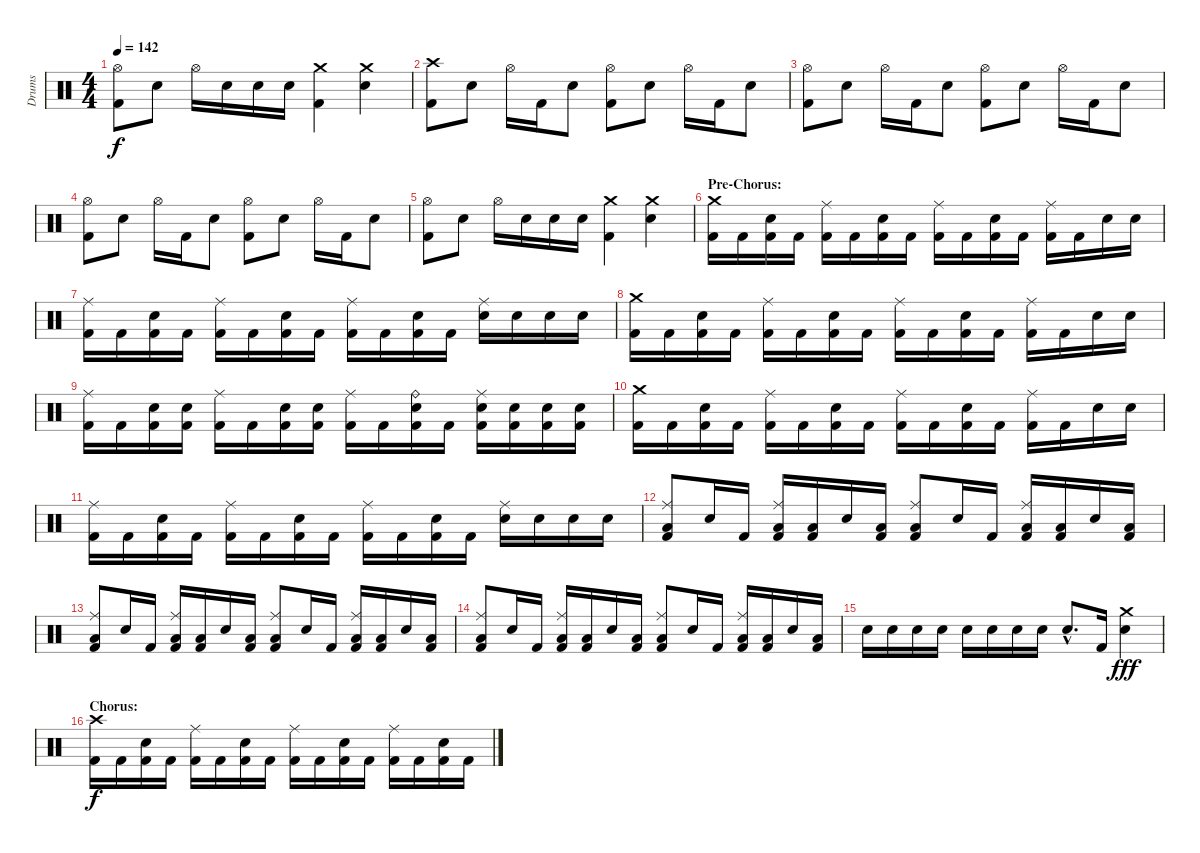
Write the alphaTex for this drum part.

\track ("Drums" "Drums") {instrument percussion}
\staff {score}
\articulation defaults
\ts (4 4)
\tempo 142
\clef neutral
\ks c
("Hi-Hat (open)" "Kick (hit) 2").8{dy f} "Electric Snare (hit)".8 "Hi-Hat (open)".16 "Electric Snare (hit)".16 "Electric Snare (hit)".16 "Electric Snare (hit)".16 ("Crash medium (hit)" "Kick (hit) 2").4 ("Crash medium (hit)" "Electric Snare (hit)").4 |
("Crash high (hit)" "Kick (hit) 2").8 "Electric Snare (hit)".8 "Hi-Hat (open)".16 "Kick (hit) 2".16 "Electric Snare (hit)".8 ("Hi-Hat (open)" "Kick (hit) 2").8 "Electric Snare (hit)".8 "Hi-Hat (open)".16 "Kick (hit) 2".16 "Electric Snare (hit)".8 |
("Hi-Hat (open)" "Kick (hit) 2").8 "Electric Snare (hit)".8 "Hi-Hat (open)".16 "Kick (hit) 2".16 "Electric Snare (hit)".8 ("Hi-Hat (open)" "Kick (hit) 2").8 "Electric Snare (hit)".8 "Hi-Hat (open)".16 "Kick (hit) 2".16 "Electric Snare (hit)".8 |
("Hi-Hat (open)" "Kick (hit) 2").8 "Electric Snare (hit)".8 "Hi-Hat (open)".16 "Kick (hit) 2".16 "Electric Snare (hit)".8 ("Hi-Hat (open)" "Kick (hit) 2").8 "Electric Snare (hit)".8 "Hi-Hat (open)".16 "Kick (hit) 2".16 "Electric Snare (hit)".8 |
("Hi-Hat (open)" "Kick (hit) 2").8 "Electric Snare (hit)".8 "Hi-Hat (open)".16 "Electric Snare (hit)".16 "Electric Snare (hit)".16 "Electric Snare (hit)".16 ("Crash medium (hit)" "Kick (hit) 2").4 ("Crash medium (hit)" "Electric Snare (hit)").4 |
\section ("" "Pre-Chorus:")
("Crash medium (hit)" "Kick (hit) 2").16 "Kick (hit) 2".16 ("Electric Snare (hit)" "Kick (hit) 2").16 "Kick (hit) 2".16 ("Ride (middle)" "Kick (hit) 2").16 "Kick (hit) 2".16 ("Electric Snare (hit)" "Kick (hit) 2").16 "Kick (hit) 2".16 ("Ride (middle)" "Kick (hit) 2").16 "Kick (hit) 2".16 ("Electric Snare (hit)" "Kick (hit) 2").16 "Kick (hit) 2".16 ("Ride (middle)" "Kick (hit) 2").16 "Kick (hit) 2".16 "Electric Snare (hit)".16 "Electric Snare (hit)".16 |
("Ride (middle)" "Kick (hit) 2").16 "Kick (hit) 2".16 ("Electric Snare (hit)" "Kick (hit) 2").16 "Kick (hit) 2".16 ("Ride (middle)" "Kick (hit) 2").16 "Kick (hit) 2".16 ("Electric Snare (hit)" "Kick (hit) 2").16 "Kick (hit) 2".16 ("Ride (middle)" "Kick (hit) 2").16 "Kick (hit) 2".16 ("Electric Snare (hit)" "Kick (hit) 2").16 "Kick (hit) 2".16 ("Ride (middle)" "Electric Snare (hit)").16 "Electric Snare (hit)".16 "Electric Snare (hit)".16 "Electric Snare (hit)".16 |
("Crash medium (hit)" "Kick (hit) 2").16 "Kick (hit) 2".16 ("Electric Snare (hit)" "Kick (hit) 2").16 "Kick (hit) 2".16 ("Ride (middle)" "Kick (hit) 2").16 "Kick (hit) 2".16 ("Electric Snare (hit)" "Kick (hit) 2").16 "Kick (hit) 2".16 ("Ride (middle)" "Kick (hit) 2").16 "Kick (hit) 2".16 ("Electric Snare (hit)" "Kick (hit) 2").16 "Kick (hit) 2".16 ("Ride (middle)" "Kick (hit) 2").16 "Kick (hit) 2".16 "Electric Snare (hit)".16 "Electric Snare (hit)".16 |
("Ride (middle)" "Kick (hit) 2").16 "Kick (hit) 2".16 ("Electric Snare (hit)" "Kick (hit) 2").16 ("Electric Snare (hit)" "Kick (hit) 2").16 ("Ride (middle)" "Kick (hit) 2").16 "Kick (hit) 2".16 ("Electric Snare (hit)" "Kick (hit) 2").16 ("Electric Snare (hit)" "Kick (hit) 2").16 ("Ride (middle)" "Kick (hit) 2").16 "Kick (hit) 2".16 ("Ride (bell)" "Electric Snare (hit)" "Kick (hit) 2").16 "Kick (hit) 2".16 ("Ride (middle)" "Electric Snare (hit)" "Kick (hit) 2").16 ("Electric Snare (hit)" "Kick (hit) 2").16 ("Electric Snare (hit)" "Kick (hit) 2").16 ("Electric Snare (hit)" "Kick (hit) 2").16 |
("Crash medium (hit)" "Kick (hit) 2").16 "Kick (hit) 2".16 ("Electric Snare (hit)" "Kick (hit) 2").16 "Kick (hit) 2".16 ("Ride (middle)" "Kick (hit) 2").16 "Kick (hit) 2".16 ("Electric Snare (hit)" "Kick (hit) 2").16 "Kick (hit) 2".16 ("Ride (middle)" "Kick (hit) 2").16 "Kick (hit) 2".16 ("Electric Snare (hit)" "Kick (hit) 2").16 "Kick (hit) 2".16 ("Ride (middle)" "Kick (hit) 2").16 "Kick (hit) 2".16 "Electric Snare (hit)".16 "Electric Snare (hit)".16 |
("Ride (middle)" "Kick (hit) 2").16 "Kick (hit) 2".16 ("Electric Snare (hit)" "Kick (hit) 2").16 "Kick (hit) 2".16 ("Ride (middle)" "Kick (hit) 2").16 "Kick (hit) 2".16 ("Electric Snare (hit)" "Kick (hit) 2").16 "Kick (hit) 2".16 ("Ride (middle)" "Kick (hit) 2").16 "Kick (hit) 2".16 ("Electric Snare (hit)" "Kick (hit) 2").16 "Kick (hit) 2".16 ("Ride (middle)" "Electric Snare (hit)").16 "Electric Snare (hit)".16 "Electric Snare (hit)".16 "Electric Snare (hit)".16 |
("Ride (middle)" "Low Floor Tom (hit)" "Kick (hit) 2").8 "Electric Snare (hit)".16 "Kick (hit) 2".16 ("Ride (middle)" "Low Floor Tom (hit)" "Kick (hit) 2").16 ("Low Floor Tom (hit)" "Kick (hit) 2").16 "Electric Snare (hit)".16 ("Low Floor Tom (hit)" "Kick (hit) 2").16 ("Ride (middle)" "Low Floor Tom (hit)" "Kick (hit) 2").8 "Electric Snare (hit)".16 "Kick (hit) 2".16 ("Ride (middle)" "Low Floor Tom (hit)" "Kick (hit) 2").16 ("Low Floor Tom (hit)" "Kick (hit) 2").16 "Electric Snare (hit)".16 ("Low Floor Tom (hit)" "Kick (hit) 2").16 |
("Ride (middle)" "Low Floor Tom (hit)" "Kick (hit) 2").8 "Electric Snare (hit)".16 "Kick (hit) 2".16 ("Ride (middle)" "Low Floor Tom (hit)" "Kick (hit) 2").16 ("Low Floor Tom (hit)" "Kick (hit) 2").16 "Electric Snare (hit)".16 ("Low Floor Tom (hit)" "Kick (hit) 2").16 ("Ride (middle)" "Low Floor Tom (hit)" "Kick (hit) 2").8 "Electric Snare (hit)".16 "Kick (hit) 2".16 ("Ride (middle)" "Low Floor Tom (hit)" "Kick (hit) 2").16 ("Low Floor Tom (hit)" "Kick (hit) 2").16 "Electric Snare (hit)".16 ("Low Floor Tom (hit)" "Kick (hit) 2").16 |
("Ride (middle)" "Low Floor Tom (hit)" "Kick (hit) 2").8 "Electric Snare (hit)".16 "Kick (hit) 2".16 ("Ride (middle)" "Low Floor Tom (hit)" "Kick (hit) 2").16 ("Low Floor Tom (hit)" "Kick (hit) 2").16 "Electric Snare (hit)".16 ("Low Floor Tom (hit)" "Kick (hit) 2").16 ("Ride (middle)" "Low Floor Tom (hit)" "Kick (hit) 2").8 "Electric Snare (hit)".16 "Kick (hit) 2".16 ("Ride (middle)" "Low Floor Tom (hit)" "Kick (hit) 2").16 ("Low Floor Tom (hit)" "Kick (hit) 2").16 "Electric Snare (hit)".16 ("Low Floor Tom (hit)" "Kick (hit) 2").16 |
"Electric Snare (hit)".16 "Electric Snare (hit)".16 "Electric Snare (hit)".16 "Electric Snare (hit)".16 "Electric Snare (hit)".16 "Electric Snare (hit)".16 "Electric Snare (hit)".16 "Electric Snare (hit)".16 "Electric Snare (hit)"{hac}.8{d} "Kick (hit) 2".16 ("Crash medium (hit)" "Electric Snare (hit)").4{dy fff} |
\section ("" "Chorus:")
("Crash high (hit)" "Kick (hit) 2").16{dy f} "Kick (hit) 2".16 ("Electric Snare (hit)" "Kick (hit) 2").16 "Kick (hit) 2".16 ("Ride (middle)" "Kick (hit) 2").16 "Kick (hit) 2".16 ("Electric Snare (hit)" "Kick (hit) 2").16 "Kick (hit) 2".16 ("Ride (middle)" "Kick (hit) 2").16 "Kick (hit) 2".16 ("Electric Snare (hit)" "Kick (hit) 2").16 "Kick (hit) 2".16 ("Ride (middle)" "Kick (hit) 2").16 "Kick (hit) 2".16 ("Electric Snare (hit)" "Kick (hit) 2").16 "Kick (hit) 2".16
